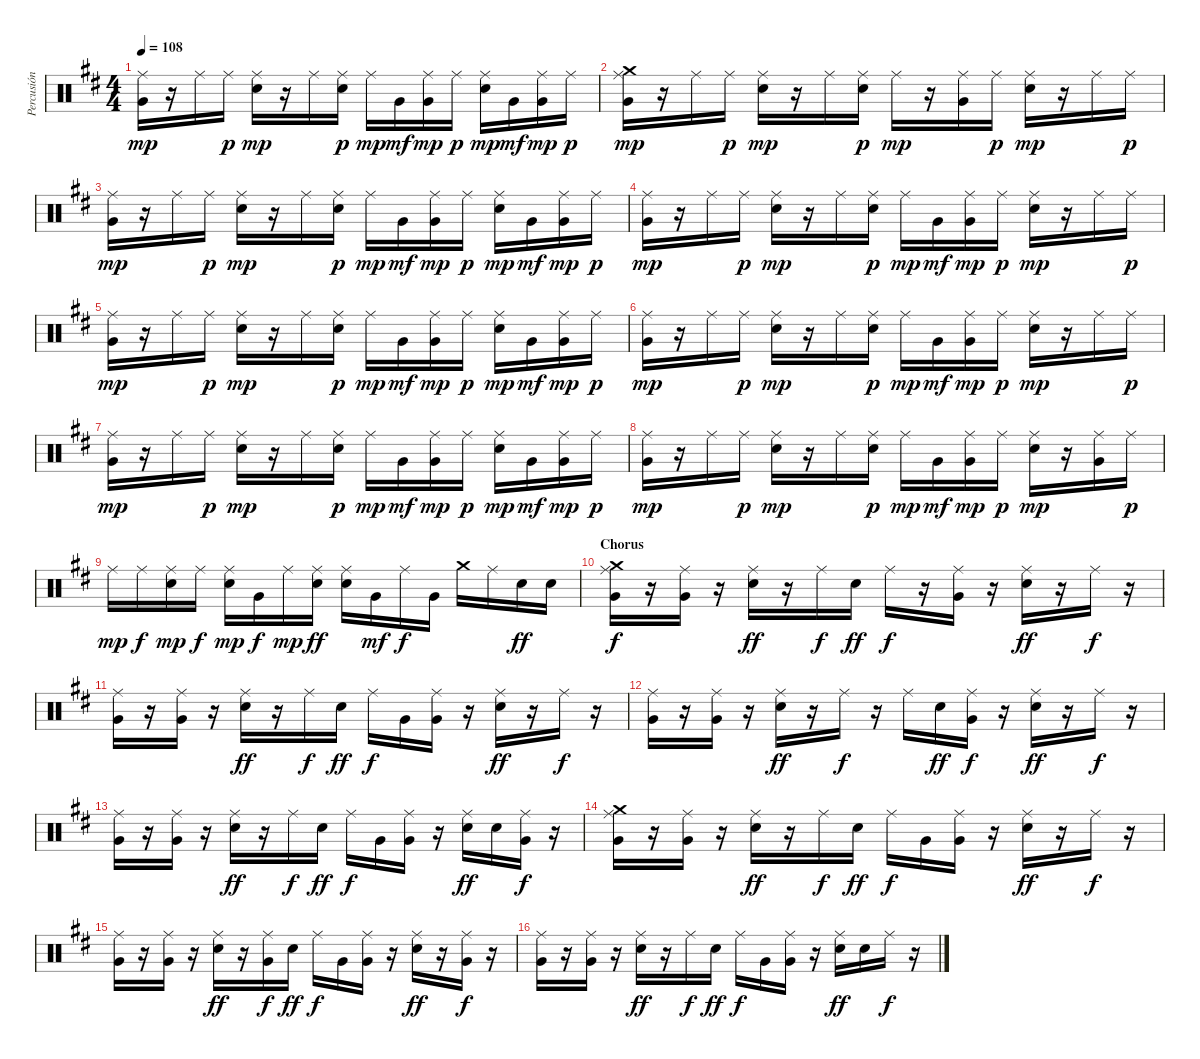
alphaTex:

\track ("Percusión" "Percusión") {instrument percussion}
\staff {score}
\articulation defaults
\ts (4 4)
\tempo 108
\clef neutral
\ks bminor
("Very Low Tom (hit)" "Ride (middle)").16{dy mp} r.16 "Ride (middle)".16 "Ride (middle)".16{dy p} ("Electric Snare (hit)" "Ride (middle)").16{dy mp} r.16 "Ride (middle)".16 ("Electric Snare (hit)" "Ride (middle)").16{dy p} "Ride (middle)".16{dy mp} "Very Low Tom (hit)".16{dy mf} ("Very Low Tom (hit)" "Ride (middle)").16{dy mp} "Ride (middle)".16{dy p} ("Electric Snare (hit)" "Ride (middle)").16{dy mp} "Very Low Tom (hit)".16{dy mf} ("Very Low Tom (hit)" "Ride (middle)").16{dy mp} "Ride (middle)".16{dy p} |
("Crash medium (hit)" "Very Low Tom (hit)" "Ride (middle)").16{dy mp} r.16 "Ride (middle)".16 "Ride (middle)".16{dy p} ("Electric Snare (hit)" "Ride (middle)").16{dy mp} r.16 "Ride (middle)".16 ("Electric Snare (hit)" "Ride (middle)").16{dy p} "Ride (middle)".16{dy mp} r.16 ("Very Low Tom (hit)" "Ride (middle)").16 "Ride (middle)".16{dy p} ("Electric Snare (hit)" "Ride (middle)").16{dy mp} r.16 "Ride (middle)".16 "Ride (middle)".16{dy p} |
("Very Low Tom (hit)" "Ride (middle)").16{dy mp} r.16 "Ride (middle)".16 "Ride (middle)".16{dy p} ("Electric Snare (hit)" "Ride (middle)").16{dy mp} r.16 "Ride (middle)".16 ("Electric Snare (hit)" "Ride (middle)").16{dy p} "Ride (middle)".16{dy mp} "Very Low Tom (hit)".16{dy mf} ("Very Low Tom (hit)" "Ride (middle)").16{dy mp} "Ride (middle)".16{dy p} ("Electric Snare (hit)" "Ride (middle)").16{dy mp} "Very Low Tom (hit)".16{dy mf} ("Very Low Tom (hit)" "Ride (middle)").16{dy mp} "Ride (middle)".16{dy p} |
("Very Low Tom (hit)" "Ride (middle)").16{dy mp} r.16 "Ride (middle)".16 "Ride (middle)".16{dy p} ("Electric Snare (hit)" "Ride (middle)").16{dy mp} r.16 "Ride (middle)".16 ("Electric Snare (hit)" "Ride (middle)").16{dy p} "Ride (middle)".16{dy mp} "Very Low Tom (hit)".16{dy mf} ("Very Low Tom (hit)" "Ride (middle)").16{dy mp} "Ride (middle)".16{dy p} ("Electric Snare (hit)" "Ride (middle)").16{dy mp} r.16 "Ride (middle)".16 "Ride (middle)".16{dy p} |
("Very Low Tom (hit)" "Ride (middle)").16{dy mp} r.16 "Ride (middle)".16 "Ride (middle)".16{dy p} ("Electric Snare (hit)" "Ride (middle)").16{dy mp} r.16 "Ride (middle)".16 ("Electric Snare (hit)" "Ride (middle)").16{dy p} "Ride (middle)".16{dy mp} "Very Low Tom (hit)".16{dy mf} ("Very Low Tom (hit)" "Ride (middle)").16{dy mp} "Ride (middle)".16{dy p} ("Electric Snare (hit)" "Ride (middle)").16{dy mp} "Very Low Tom (hit)".16{dy mf} ("Very Low Tom (hit)" "Ride (middle)").16{dy mp} "Ride (middle)".16{dy p} |
("Very Low Tom (hit)" "Ride (middle)").16{dy mp} r.16 "Ride (middle)".16 "Ride (middle)".16{dy p} ("Electric Snare (hit)" "Ride (middle)").16{dy mp} r.16 "Ride (middle)".16 ("Electric Snare (hit)" "Ride (middle)").16{dy p} "Ride (middle)".16{dy mp} "Very Low Tom (hit)".16{dy mf} ("Very Low Tom (hit)" "Ride (middle)").16{dy mp} "Ride (middle)".16{dy p} ("Electric Snare (hit)" "Ride (middle)").16{dy mp} r.16 "Ride (middle)".16 "Ride (middle)".16{dy p} |
("Very Low Tom (hit)" "Ride (middle)").16{dy mp} r.16 "Ride (middle)".16 "Ride (middle)".16{dy p} ("Electric Snare (hit)" "Ride (middle)").16{dy mp} r.16 "Ride (middle)".16 ("Electric Snare (hit)" "Ride (middle)").16{dy p} "Ride (middle)".16{dy mp} "Very Low Tom (hit)".16{dy mf} ("Very Low Tom (hit)" "Ride (middle)").16{dy mp} "Ride (middle)".16{dy p} ("Electric Snare (hit)" "Ride (middle)").16{dy mp} "Very Low Tom (hit)".16{dy mf} ("Very Low Tom (hit)" "Ride (middle)").16{dy mp} "Ride (middle)".16{dy p} |
("Very Low Tom (hit)" "Ride (middle)").16{dy mp} r.16 "Ride (middle)".16 "Ride (middle)".16{dy p} ("Electric Snare (hit)" "Ride (middle)").16{dy mp} r.16 "Ride (middle)".16 ("Electric Snare (hit)" "Ride (middle)").16{dy p} "Ride (middle)".16{dy mp} "Very Low Tom (hit)".16{dy mf} ("Very Low Tom (hit)" "Ride (middle)").16{dy mp} "Ride (middle)".16{dy p} ("Electric Snare (hit)" "Ride (middle)").16{dy mp} r.16 ("Very Low Tom (hit)" "Ride (middle)").16 "Ride (middle)".16{dy p} |
"Ride (middle)".16{dy mp} "Ride (middle)".16{dy f} ("Electric Snare (hit)" "Ride (middle)").16{dy mp} "Ride (middle)".16{dy f} ("Electric Snare (hit)" "Ride (middle)").16{dy mp} "Very Low Tom (hit)".16{dy f} "Ride (middle)".16{dy mp} ("Electric Snare (hit)" "Ride (middle)").16{dy ff} ("Electric Snare (hit)" "Ride (middle)").16 "Very Low Tom (hit)".16{dy mf} "Ride (middle)".16{dy f} "Very Low Tom (hit)".16 "Crash medium (hit)".16 "Ride (middle)".16 "Electric Snare (hit)".16{dy ff} "Electric Snare (hit)".16 |
\section ("" "Chorus")
("Crash medium (hit)" "Very Low Tom (hit)" "Ride (middle)").16{dy f} r.16 ("Very Low Tom (hit)" "Ride (middle)").16 r.16 ("Electric Snare (hit)" "Ride (middle)").16{dy ff} r.16 "Ride (middle)".16{dy f} "Electric Snare (hit)".16{dy ff} "Ride (middle)".16{dy f} r.16 ("Very Low Tom (hit)" "Ride (middle)").16 r.16 ("Electric Snare (hit)" "Ride (middle)").16{dy ff} r.16 "Ride (middle)".16{dy f} r.16 |
("Very Low Tom (hit)" "Ride (middle)").16 r.16 ("Very Low Tom (hit)" "Ride (middle)").16 r.16 ("Electric Snare (hit)" "Ride (middle)").16{dy ff} r.16 "Ride (middle)".16{dy f} "Electric Snare (hit)".16{dy ff} "Ride (middle)".16{dy f} "Very Low Tom (hit)".16 ("Very Low Tom (hit)" "Ride (middle)").16 r.16 ("Electric Snare (hit)" "Ride (middle)").16{dy ff} r.16 "Ride (middle)".16{dy f} r.16 |
("Very Low Tom (hit)" "Ride (middle)").16 r.16 ("Very Low Tom (hit)" "Ride (middle)").16 r.16 ("Electric Snare (hit)" "Ride (middle)").16{dy ff} r.16 "Ride (middle)".16{dy f} r.16 "Ride (middle)".16 "Electric Snare (hit)".16{dy ff} ("Very Low Tom (hit)" "Ride (middle)").16{dy f} r.16 ("Electric Snare (hit)" "Ride (middle)").16{dy ff} r.16 "Ride (middle)".16{dy f} r.16 |
("Very Low Tom (hit)" "Ride (middle)").16 r.16 ("Very Low Tom (hit)" "Ride (middle)").16 r.16 ("Electric Snare (hit)" "Ride (middle)").16{dy ff} r.16 "Ride (middle)".16{dy f} "Electric Snare (hit)".16{dy ff} "Ride (middle)".16{dy f} "Very Low Tom (hit)".16 ("Very Low Tom (hit)" "Ride (middle)").16 r.16 ("Electric Snare (hit)" "Ride (middle)").16{dy ff} "Electric Snare (hit)".16 ("Very Low Tom (hit)" "Ride (middle)").16{dy f} r.16 |
("Crash medium (hit)" "Very Low Tom (hit)" "Ride (middle)").16 r.16 ("Very Low Tom (hit)" "Ride (middle)").16 r.16 ("Electric Snare (hit)" "Ride (middle)").16{dy ff} r.16 "Ride (middle)".16{dy f} "Electric Snare (hit)".16{dy ff} "Ride (middle)".16{dy f} "Very Low Tom (hit)".16 ("Very Low Tom (hit)" "Ride (middle)").16 r.16 ("Electric Snare (hit)" "Ride (middle)").16{dy ff} r.16 "Ride (middle)".16{dy f} r.16 |
("Very Low Tom (hit)" "Ride (middle)").16 r.16 ("Very Low Tom (hit)" "Ride (middle)").16 r.16 ("Electric Snare (hit)" "Ride (middle)").16{dy ff} r.16 ("Very Low Tom (hit)" "Ride (middle)").16{dy f} "Electric Snare (hit)".16{dy ff} "Ride (middle)".16{dy f} "Very Low Tom (hit)".16 ("Very Low Tom (hit)" "Ride (middle)").16 r.16 ("Electric Snare (hit)" "Ride (middle)").16{dy ff} r.16 ("Very Low Tom (hit)" "Ride (middle)").16{dy f} r.16 |
("Very Low Tom (hit)" "Ride (middle)").16 r.16 ("Very Low Tom (hit)" "Ride (middle)").16 r.16 ("Electric Snare (hit)" "Ride (middle)").16{dy ff} r.16 "Ride (middle)".16{dy f} "Electric Snare (hit)".16{dy ff} "Ride (middle)".16{dy f} "Very Low Tom (hit)".16 ("Very Low Tom (hit)" "Ride (middle)").16 r.16 ("Electric Snare (hit)" "Ride (middle)").16{dy ff} "Electric Snare (hit)".16 "Ride (middle)".16{dy f} r.16
